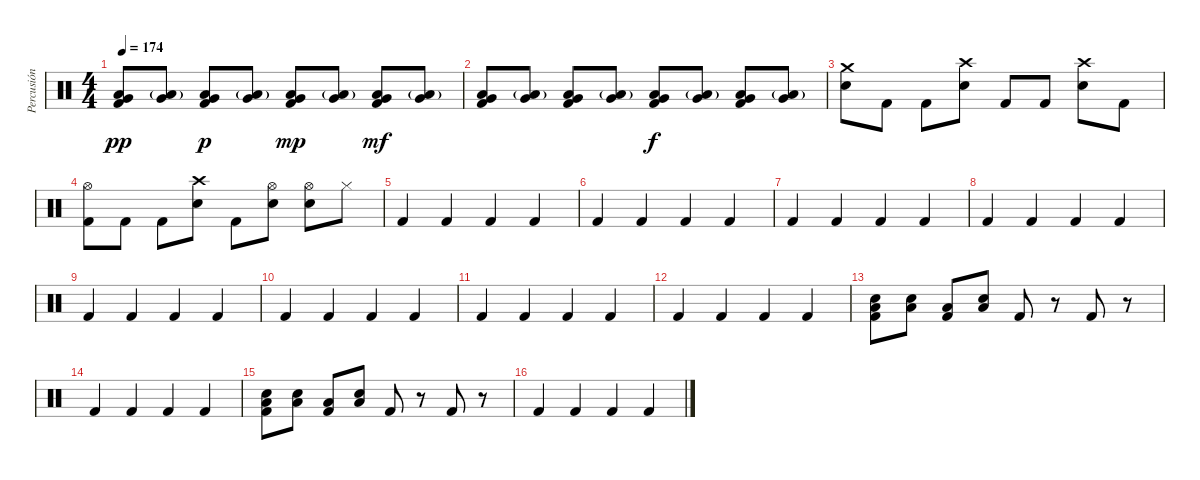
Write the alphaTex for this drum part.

\track ("Percusión" "Percusión") {instrument percussion}
\staff {score}
\articulation defaults
\ts (4 4)
\tempo 174
\clef neutral
\ks c
("Low Tom (hit)" "Very Low Tom (hit)" "Kick (hit) 2").8{dy pp} ("Low Tom (hit)"{g} "Very Low Tom (hit)").8 ("Low Tom (hit)" "Very Low Tom (hit)" "Kick (hit) 2").8{dy p} ("Low Tom (hit)"{g} "Very Low Tom (hit)").8 ("Low Tom (hit)" "Very Low Tom (hit)" "Kick (hit) 2").8{dy mp} ("Low Tom (hit)"{g} "Very Low Tom (hit)").8 ("Low Tom (hit)" "Very Low Tom (hit)" "Kick (hit) 2").8{dy mf} ("Low Tom (hit)"{g} "Very Low Tom (hit)").8 |
("Low Tom (hit)" "Very Low Tom (hit)" "Kick (hit) 2").8 ("Low Tom (hit)"{g} "Very Low Tom (hit)").8 ("Low Tom (hit)" "Very Low Tom (hit)" "Kick (hit) 2").8 ("Low Tom (hit)"{g} "Very Low Tom (hit)").8 ("Low Tom (hit)" "Very Low Tom (hit)" "Kick (hit) 2").8{dy f} ("Low Tom (hit)"{g} "Very Low Tom (hit)").8 ("Low Tom (hit)" "Very Low Tom (hit)" "Kick (hit) 2").8 ("Low Tom (hit)"{g} "Very Low Tom (hit)").8 |
("Crash medium (hit)" "Electric Snare (hit)").8 "Kick (hit) 2".8 "Kick (hit) 2".8 ("Crash high (hit)" "Electric Snare (hit)").8 "Kick (hit) 2".8 "Kick (hit) 2".8 ("Crash high (hit)" "Electric Snare (hit)").8 "Kick (hit) 2".8 |
("Hi-Hat (open)" "Kick (hit) 2").8 "Kick (hit) 2".8 "Kick (hit) 2".8 ("Crash high (hit)" "Electric Snare (hit)").8 "Kick (hit) 2".8 ("Hi-Hat (open)" "Electric Snare (hit)").8 ("Hi-Hat (open)" "Electric Snare (hit)").8 "Hi-Hat (closed)".8 |
"Kick (hit) 2".4 "Kick (hit) 2".4 "Kick (hit) 2".4 "Kick (hit) 2".4 |
"Kick (hit) 2".4 "Kick (hit) 2".4 "Kick (hit) 2".4 "Kick (hit) 2".4 |
"Kick (hit) 2".4 "Kick (hit) 2".4 "Kick (hit) 2".4 "Kick (hit) 2".4 |
"Kick (hit) 2".4 "Kick (hit) 2".4 "Kick (hit) 2".4 "Kick (hit) 2".4 |
"Kick (hit) 2".4 "Kick (hit) 2".4 "Kick (hit) 2".4 "Kick (hit) 2".4 |
"Kick (hit) 2".4 "Kick (hit) 2".4 "Kick (hit) 2".4 "Kick (hit) 2".4 |
"Kick (hit) 2".4 "Kick (hit) 2".4 "Kick (hit) 2".4 "Kick (hit) 2".4 |
"Kick (hit) 2".4 "Kick (hit) 2".4 "Kick (hit) 2".4 "Kick (hit) 2".4 |
("Low Tom (hit)" "Electric Snare (hit)" "Kick (hit) 2").8 ("Low Tom (hit)" "Electric Snare (hit)").8 ("Low Floor Tom (hit)" "Kick (hit) 2").8 ("Low Floor Tom (hit)" "Electric Snare (hit)").8 "Kick (hit) 2".8 r.8 "Kick (hit) 2".8 r.8 |
"Kick (hit) 2".4 "Kick (hit) 2".4 "Kick (hit) 2".4 "Kick (hit) 2".4 |
("Low Tom (hit)" "Electric Snare (hit)" "Kick (hit) 2").8 ("Low Tom (hit)" "Electric Snare (hit)").8 ("Low Floor Tom (hit)" "Kick (hit) 2").8 ("Low Floor Tom (hit)" "Electric Snare (hit)").8 "Kick (hit) 2".8 r.8 "Kick (hit) 2".8 r.8 |
"Kick (hit) 2".4 "Kick (hit) 2".4 "Kick (hit) 2".4 "Kick (hit) 2".4
